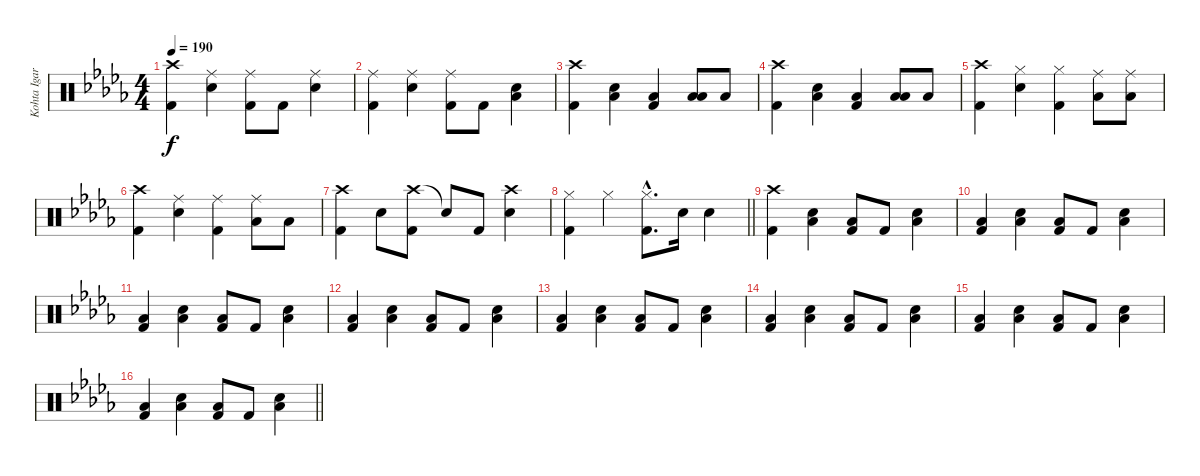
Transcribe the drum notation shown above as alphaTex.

\track ("Kohta Igarashi" "Kohta Igar") {instrument percussion}
\staff {score}
\articulation defaults
\ts (4 4)
\tempo 190
\clef neutral
\ks db
("Crash high (hit)" "Kick (hit) 2").4{dy f} ("Ride (middle)" "Electric Snare (hit)").4 ("Ride (middle)" "Kick (hit) 2").8 "Kick (hit) 2".8 ("Ride (middle)" "Electric Snare (hit)").4 |
("Ride (middle)" "Kick (hit) 2").4 ("Ride (middle)" "Electric Snare (hit)").4 ("Ride (middle)" "Kick (hit) 2").8 "Kick (hit) 2".8 ("Electric Snare (hit)" "Low Floor Tom (hit)").4 |
("Crash high (hit)" "Kick (hit) 2").4 ("Electric Snare (hit)" "Low Floor Tom (hit)").4 ("Low Floor Tom (hit)" "Kick (hit) 2").4 ("Low Tom (hit)" "Low Floor Tom (hit)").8 "Low Tom (hit)".8 |
("Crash high (hit)" "Kick (hit) 2").4 ("Electric Snare (hit)" "Low Floor Tom (hit)").4 ("Low Floor Tom (hit)" "Kick (hit) 2").4 ("Low Tom (hit)" "Low Floor Tom (hit)").8 "Low Tom (hit)".8 |
("Crash high (hit)" "Kick (hit) 2").4 ("Hi-Hat (closed)" "Electric Snare (hit)").4 ("Hi-Hat (closed)" "Kick (hit) 2").4 ("Ride (middle)" "Low Tom (hit)").8 ("Ride (middle)" "Low Tom (hit)").8 |
("Crash high (hit)" "Kick (hit) 2").4 ("Ride (middle)" "Electric Snare (hit)").4 ("Ride (middle)" "Kick (hit) 2").4 ("Ride (middle)" "Low Tom (hit)").8 "Low Tom (hit)".8 |
("Crash high (hit)" "Kick (hit) 2").4 "Electric Snare (hit)".8 ("Crash high (hit)" "Kick (hit) 2").8 "Snare (hit)"{t}.8 "Kick (hit) 2".8 ("Crash high (hit)" "Electric Snare (hit)").4 |
\barLineRight lightlight
("Hi-Hat (closed)" "Kick (hit) 2").4 "Hi-Hat (closed)".4 ("Hi-Hat (closed)"{hac} "Kick (hit) 2"{hac}).8{d} "Electric Snare (hit)".16 "Electric Snare (hit)".4 |
("Crash high (hit)" "Kick (hit) 2").4 ("Electric Snare (hit)" "Low Floor Tom (hit)").4 ("Low Floor Tom (hit)" "Kick (hit) 2").8 "Kick (hit) 2".8 ("Electric Snare (hit)" "Low Floor Tom (hit)").4 |
("Low Floor Tom (hit)" "Kick (hit) 2").4 ("Electric Snare (hit)" "Low Floor Tom (hit)").4 ("Low Floor Tom (hit)" "Kick (hit) 2").8 "Kick (hit) 2".8 ("Electric Snare (hit)" "Low Floor Tom (hit)").4 |
("Low Floor Tom (hit)" "Kick (hit) 2").4 ("Electric Snare (hit)" "Low Floor Tom (hit)").4 ("Low Floor Tom (hit)" "Kick (hit) 2").8 "Kick (hit) 2".8 ("Electric Snare (hit)" "Low Floor Tom (hit)").4 |
("Low Floor Tom (hit)" "Kick (hit) 2").4 ("Electric Snare (hit)" "Low Floor Tom (hit)").4 ("Low Floor Tom (hit)" "Kick (hit) 2").8 "Kick (hit) 2".8 ("Electric Snare (hit)" "Low Floor Tom (hit)").4 |
("Low Floor Tom (hit)" "Kick (hit) 2").4 ("Electric Snare (hit)" "Low Floor Tom (hit)").4 ("Low Floor Tom (hit)" "Kick (hit) 2").8 "Kick (hit) 2".8 ("Electric Snare (hit)" "Low Floor Tom (hit)").4 |
("Low Floor Tom (hit)" "Kick (hit) 2").4 ("Electric Snare (hit)" "Low Floor Tom (hit)").4 ("Low Floor Tom (hit)" "Kick (hit) 2").8 "Kick (hit) 2".8 ("Electric Snare (hit)" "Low Floor Tom (hit)").4 |
("Low Floor Tom (hit)" "Kick (hit) 2").4 ("Electric Snare (hit)" "Low Floor Tom (hit)").4 ("Low Floor Tom (hit)" "Kick (hit) 2").8 "Kick (hit) 2".8 ("Electric Snare (hit)" "Low Floor Tom (hit)").4 |
\barLineRight lightlight
("Low Floor Tom (hit)" "Kick (hit) 2").4 ("Electric Snare (hit)" "Low Floor Tom (hit)").4 ("Low Floor Tom (hit)" "Kick (hit) 2").8 "Kick (hit) 2".8 ("Electric Snare (hit)" "Low Floor Tom (hit)").4
